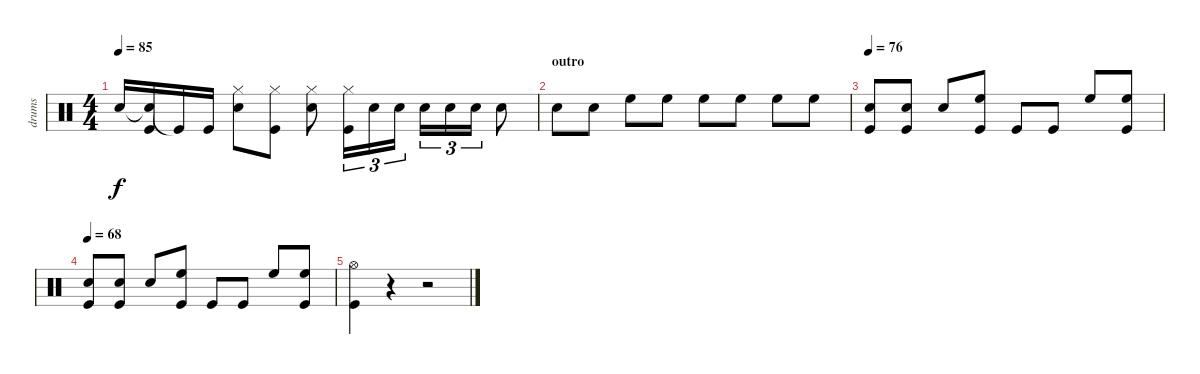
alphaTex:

\track ("drums" "drums") {instrument percussion}
\staff {score}
\articulation defaults
\ts (4 4)
\tempo 85
\clef neutral
\ks c "Snare (hit) 2".16{dy f}
("Snare (hit)"{t} "Kick (hit)").16 "Kick (hit)"{t}.16 "Kick (hit)".16 ("Hi-Hat (closed)" "Snare (hit) 2").8 ("Hi-Hat (closed)" "Kick (hit)").8 ("Hi-Hat (closed)" "Snare (hit) 2").8 ("Hi-Hat (closed)" "Kick (hit)").16{tu (3 2)} "Snare (hit) 2".16{tu (3 2)} "Snare (hit) 2".16{tu (3 2)} "Snare (hit) 2".16{tu (3 2)} "Snare (hit) 2".16{tu (3 2)} "Snare (hit) 2".16{tu (3 2)} "Snare (hit) 2".8 |
\section ("" "outro")
"Snare (hit) 2".8 "Snare (hit) 2".8 "High Floor Tom (hit)".8 "High Floor Tom (hit)".8 "High Floor Tom (hit)".8 "High Floor Tom (hit)".8 "High Floor Tom (hit)".8 "High Floor Tom (hit)".8 |
\tempo 76
("Snare (hit) 2" "Kick (hit)").8 ("Snare (hit) 2" "Kick (hit)").8 "Snare (hit) 2".8 ("High Floor Tom (hit)" "Kick (hit)").8 "Kick (hit)".8 "Kick (hit)".8 "High Floor Tom (hit)".8 ("High Floor Tom (hit)" "Kick (hit)").8 |
\tempo 68
("Snare (hit) 2" "Kick (hit)").8 ("Snare (hit) 2" "Kick (hit)").8 "Snare (hit) 2".8 ("High Floor Tom (hit)" "Kick (hit)").8 "Kick (hit)".8 "Kick (hit)".8 "High Floor Tom (hit)".8 ("High Floor Tom (hit)" "Kick (hit)").8 |
("Hi-Hat (open)" "Kick (hit)").4 r.4 r.2
